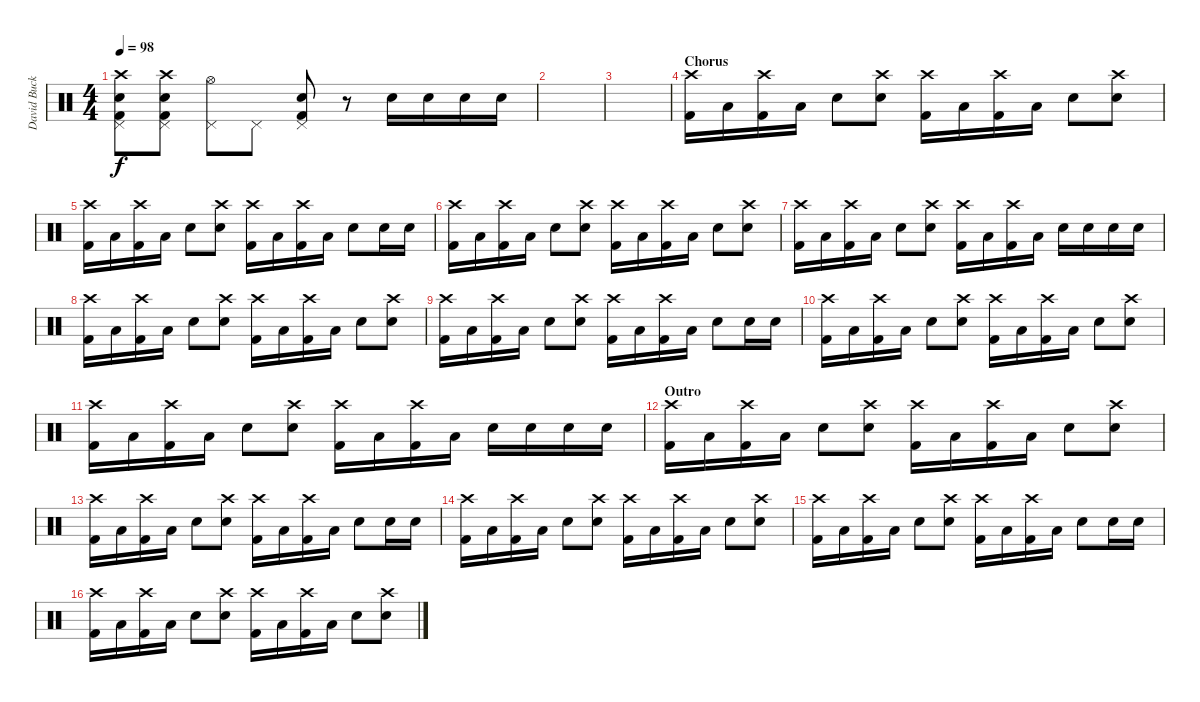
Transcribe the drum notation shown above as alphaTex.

\track ("David Buckner" "David Buck") {instrument percussion}
\staff {score}
\articulation defaults
\ts (4 4)
\tempo 98
\clef neutral
\ks c
("Crash high (hit)" "Snare (hit) 2" "Pedal Hi-Hat (hit)" "Kick (hit) 2").8{dy f} ("Crash high (hit)" "Snare (hit) 2" "Pedal Hi-Hat (hit)" "Kick (hit) 2").8 ("Hi-Hat (open)" "Pedal Hi-Hat (hit)").8 "Pedal Hi-Hat (hit)".8 ("Snare (hit) 2" "Pedal Hi-Hat (hit)" "Kick (hit) 2").8 r.8 "Snare (hit) 2".16 "Snare (hit) 2".16 "Snare (hit) 2".16 "Snare (hit) 2".16 |
|
|
\section ("" "Chorus")
("Crash high (hit)" "Kick (hit) 2").16 "Low Tom (hit)".16 ("Crash high (hit)" "Kick (hit) 2").16 "Low Tom (hit)".16 "Snare (hit) 2".8 ("Crash high (hit)" "Snare (hit) 2").8 ("Crash high (hit)" "Kick (hit) 2").16 "Low Tom (hit)".16 ("Crash high (hit)" "Kick (hit) 2").16 "Low Tom (hit)".16 "Snare (hit) 2".8 ("Crash high (hit)" "Snare (hit) 2").8 |
("Crash high (hit)" "Kick (hit) 2").16 "Low Tom (hit)".16 ("Crash high (hit)" "Kick (hit) 2").16 "Low Tom (hit)".16 "Snare (hit) 2".8 ("Crash high (hit)" "Snare (hit) 2").8 ("Crash high (hit)" "Kick (hit) 2").16 "Low Tom (hit)".16 ("Crash high (hit)" "Kick (hit) 2").16 "Low Tom (hit)".16 "Snare (hit) 2".8 "Snare (hit) 2".16 "Snare (hit) 2".16 |
("Crash high (hit)" "Kick (hit) 2").16 "Low Tom (hit)".16 ("Crash high (hit)" "Kick (hit) 2").16 "Low Tom (hit)".16 "Snare (hit) 2".8 ("Crash high (hit)" "Snare (hit) 2").8 ("Crash high (hit)" "Kick (hit) 2").16 "Low Tom (hit)".16 ("Crash high (hit)" "Kick (hit) 2").16 "Low Tom (hit)".16 "Snare (hit) 2".8 ("Crash high (hit)" "Snare (hit) 2").8 |
("Crash high (hit)" "Kick (hit) 2").16 "Low Tom (hit)".16 ("Crash high (hit)" "Kick (hit) 2").16 "Low Tom (hit)".16 "Snare (hit) 2".8 ("Crash high (hit)" "Snare (hit) 2").8 ("Crash high (hit)" "Kick (hit) 2").16 "Low Tom (hit)".16 ("Crash high (hit)" "Kick (hit) 2").16 "Low Tom (hit)".16 "Snare (hit) 2".16 "Snare (hit) 2".16 "Snare (hit) 2".16 "Snare (hit) 2".16 |
("Crash high (hit)" "Kick (hit) 2").16 "Low Tom (hit)".16 ("Crash high (hit)" "Kick (hit) 2").16 "Low Tom (hit)".16 "Snare (hit) 2".8 ("Crash high (hit)" "Snare (hit) 2").8 ("Crash high (hit)" "Kick (hit) 2").16 "Low Tom (hit)".16 ("Crash high (hit)" "Kick (hit) 2").16 "Low Tom (hit)".16 "Snare (hit) 2".8 ("Crash high (hit)" "Snare (hit) 2").8 |
("Crash high (hit)" "Kick (hit) 2").16 "Low Tom (hit)".16 ("Crash high (hit)" "Kick (hit) 2").16 "Low Tom (hit)".16 "Snare (hit) 2".8 ("Crash high (hit)" "Snare (hit) 2").8 ("Crash high (hit)" "Kick (hit) 2").16 "Low Tom (hit)".16 ("Crash high (hit)" "Kick (hit) 2").16 "Low Tom (hit)".16 "Snare (hit) 2".8 "Snare (hit) 2".16 "Snare (hit) 2".16 |
("Crash high (hit)" "Kick (hit) 2").16 "Low Tom (hit)".16 ("Crash high (hit)" "Kick (hit) 2").16 "Low Tom (hit)".16 "Snare (hit) 2".8 ("Crash high (hit)" "Snare (hit) 2").8 ("Crash high (hit)" "Kick (hit) 2").16 "Low Tom (hit)".16 ("Crash high (hit)" "Kick (hit) 2").16 "Low Tom (hit)".16 "Snare (hit) 2".8 ("Crash high (hit)" "Snare (hit) 2").8 |
("Crash high (hit)" "Kick (hit) 2").16 "Low Tom (hit)".16 ("Crash high (hit)" "Kick (hit) 2").16 "Low Tom (hit)".16 "Snare (hit) 2".8 ("Crash high (hit)" "Snare (hit) 2").8 ("Crash high (hit)" "Kick (hit) 2").16 "Low Tom (hit)".16 ("Crash high (hit)" "Kick (hit) 2").16 "Low Tom (hit)".16 "Snare (hit) 2".16 "Snare (hit) 2".16 "Snare (hit) 2".16 "Snare (hit) 2".16 |
\section ("" "Outro")
("Crash high (hit)" "Kick (hit) 2").16 "Low Tom (hit)".16 ("Crash high (hit)" "Kick (hit) 2").16 "Low Tom (hit)".16 "Snare (hit) 2".8 ("Crash high (hit)" "Snare (hit) 2").8 ("Crash high (hit)" "Kick (hit) 2").16 "Low Tom (hit)".16 ("Crash high (hit)" "Kick (hit) 2").16 "Low Tom (hit)".16 "Snare (hit) 2".8 ("Crash high (hit)" "Snare (hit) 2").8 |
("Crash high (hit)" "Kick (hit) 2").16 "Low Tom (hit)".16 ("Crash high (hit)" "Kick (hit) 2").16 "Low Tom (hit)".16 "Snare (hit) 2".8 ("Crash high (hit)" "Snare (hit) 2").8 ("Crash high (hit)" "Kick (hit) 2").16 "Low Tom (hit)".16 ("Crash high (hit)" "Kick (hit) 2").16 "Low Tom (hit)".16 "Snare (hit) 2".8 "Snare (hit) 2".16 "Snare (hit) 2".16 |
("Crash high (hit)" "Kick (hit) 2").16 "Low Tom (hit)".16 ("Crash high (hit)" "Kick (hit) 2").16 "Low Tom (hit)".16 "Snare (hit) 2".8 ("Crash high (hit)" "Snare (hit) 2").8 ("Crash high (hit)" "Kick (hit) 2").16 "Low Tom (hit)".16 ("Crash high (hit)" "Kick (hit) 2").16 "Low Tom (hit)".16 "Snare (hit) 2".8 ("Crash high (hit)" "Snare (hit) 2").8 |
("Crash high (hit)" "Kick (hit) 2").16 "Low Tom (hit)".16 ("Crash high (hit)" "Kick (hit) 2").16 "Low Tom (hit)".16 "Snare (hit) 2".8 ("Crash high (hit)" "Snare (hit) 2").8 ("Crash high (hit)" "Kick (hit) 2").16 "Low Tom (hit)".16 ("Crash high (hit)" "Kick (hit) 2").16 "Low Tom (hit)".16 "Snare (hit) 2".8 "Snare (hit) 2".16 "Snare (hit) 2".16 |
("Crash high (hit)" "Kick (hit) 2").16 "Low Tom (hit)".16 ("Crash high (hit)" "Kick (hit) 2").16 "Low Tom (hit)".16 "Snare (hit) 2".8 ("Crash high (hit)" "Snare (hit) 2").8 ("Crash high (hit)" "Kick (hit) 2").16 "Low Tom (hit)".16 ("Crash high (hit)" "Kick (hit) 2").16 "Low Tom (hit)".16 "Snare (hit) 2".8 ("Crash high (hit)" "Snare (hit) 2").8
